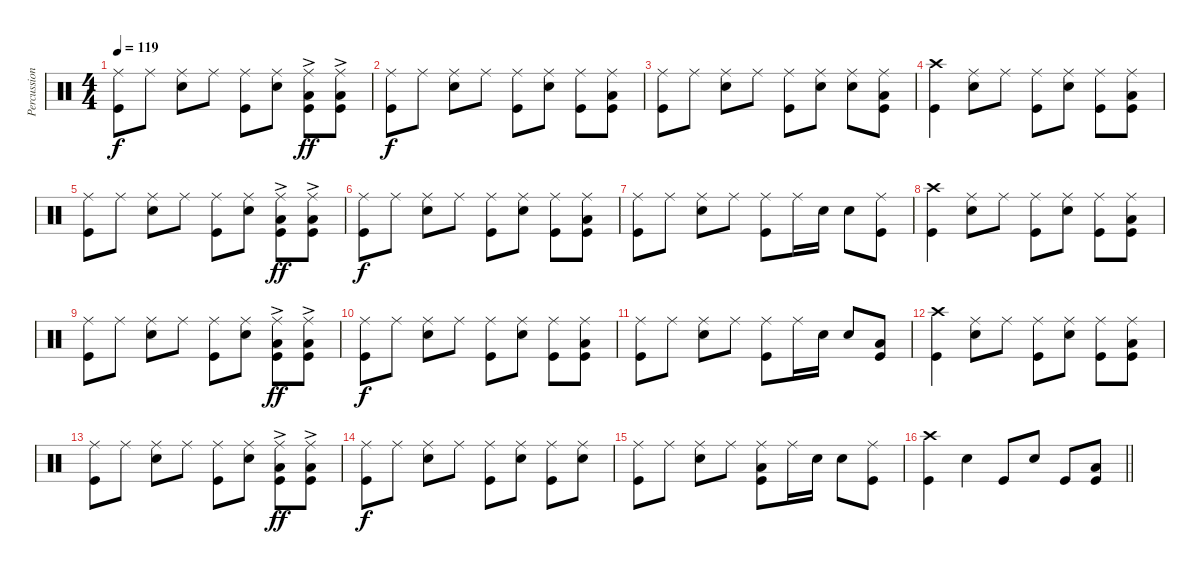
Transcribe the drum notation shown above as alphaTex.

\track ("Percussion" "Percussion") {instrument percussion}
\staff {score}
\articulation defaults
\ts (4 4)
\tempo 119
\clef neutral
\ks c
("Ride (middle)" "Kick (hit)").8{dy f} "Ride (middle)".8 ("Ride (middle)" "Snare (hit) 2").8 "Ride (middle)".8 ("Ride (middle)" "Kick (hit)").8 ("Ride (middle)" "Snare (hit) 2").8 ("Ride (middle)" "Low Tom (hit)"{ac} "Kick (hit)").8{dy ff} ("Ride (middle)" "Low Tom (hit)"{ac} "Kick (hit)").8 |
("Ride (middle)" "Kick (hit)").8{dy f} "Ride (middle)".8 ("Ride (middle)" "Snare (hit) 2").8 "Ride (middle)".8 ("Ride (middle)" "Kick (hit)").8 ("Ride (middle)" "Snare (hit) 2").8 ("Ride (middle)" "Kick (hit)").8 ("Ride (middle)" "Low Tom (hit)" "Kick (hit)").8 |
("Ride (middle)" "Kick (hit)").8 "Ride (middle)".8 ("Ride (middle)" "Snare (hit) 2").8 "Ride (middle)".8 ("Ride (middle)" "Kick (hit)").8 ("Ride (middle)" "Snare (hit) 2").8 ("Ride (middle)" "Snare (hit) 2").8 ("Ride (middle)" "Low Tom (hit)" "Kick (hit)").8 |
("Crash high (hit)" "Kick (hit)").4 ("Ride (middle)" "Snare (hit) 2").8 "Ride (middle)".8 ("Ride (middle)" "Kick (hit)").8 ("Ride (middle)" "Snare (hit) 2").8 ("Ride (middle)" "Kick (hit)").8 ("Ride (middle)" "Low Tom (hit)" "Kick (hit)").8 |
("Ride (middle)" "Kick (hit)").8 "Ride (middle)".8 ("Ride (middle)" "Snare (hit) 2").8 "Ride (middle)".8 ("Ride (middle)" "Kick (hit)").8 ("Ride (middle)" "Snare (hit) 2").8 ("Ride (middle)" "Low Tom (hit)"{ac} "Kick (hit)").8{dy ff} ("Ride (middle)" "Low Tom (hit)"{ac} "Kick (hit)").8 |
("Ride (middle)" "Kick (hit)").8{dy f} "Ride (middle)".8 ("Ride (middle)" "Snare (hit) 2").8 "Ride (middle)".8 ("Ride (middle)" "Kick (hit)").8 ("Ride (middle)" "Snare (hit) 2").8 ("Ride (middle)" "Kick (hit)").8 ("Ride (middle)" "Low Tom (hit)" "Kick (hit)").8 |
("Ride (middle)" "Kick (hit)").8 "Ride (middle)".8 ("Ride (middle)" "Snare (hit) 2").8 "Ride (middle)".8 ("Ride (middle)" "Kick (hit)").8 "Ride (middle)".16 "Snare (hit) 2".16 "Snare (hit) 2".8 ("Ride (middle)" "Kick (hit)").8 |
("Crash high (hit)" "Kick (hit)").4 ("Ride (middle)" "Snare (hit) 2").8 "Ride (middle)".8 ("Ride (middle)" "Kick (hit)").8 ("Ride (middle)" "Snare (hit) 2").8 ("Ride (middle)" "Kick (hit)").8 ("Ride (middle)" "Low Tom (hit)" "Kick (hit)").8 |
("Ride (middle)" "Kick (hit)").8 "Ride (middle)".8 ("Ride (middle)" "Snare (hit) 2").8 "Ride (middle)".8 ("Ride (middle)" "Kick (hit)").8 ("Ride (middle)" "Snare (hit) 2").8 ("Ride (middle)" "Low Tom (hit)"{ac} "Kick (hit)").8{dy ff} ("Ride (middle)" "Low Tom (hit)"{ac} "Kick (hit)").8 |
("Ride (middle)" "Kick (hit)").8{dy f} "Ride (middle)".8 ("Ride (middle)" "Snare (hit) 2").8 "Ride (middle)".8 ("Ride (middle)" "Kick (hit)").8 ("Ride (middle)" "Snare (hit) 2").8 ("Ride (middle)" "Kick (hit)").8 ("Ride (middle)" "Low Tom (hit)" "Kick (hit)").8 |
("Ride (middle)" "Kick (hit)").8 "Ride (middle)".8 ("Ride (middle)" "Snare (hit) 2").8 "Ride (middle)".8 ("Ride (middle)" "Kick (hit)").8 "Ride (middle)".16 "Snare (hit) 2".16 "Snare (hit) 2".8 ("Low Tom (hit)" "Kick (hit)").8 |
("Crash high (hit)" "Kick (hit)").4 ("Ride (middle)" "Snare (hit) 2").8 "Ride (middle)".8 ("Ride (middle)" "Kick (hit)").8 ("Ride (middle)" "Snare (hit) 2").8 ("Ride (middle)" "Kick (hit)").8 ("Ride (middle)" "Low Tom (hit)" "Kick (hit)").8 |
("Ride (middle)" "Kick (hit)").8 "Ride (middle)".8 ("Ride (middle)" "Snare (hit) 2").8 "Ride (middle)".8 ("Ride (middle)" "Kick (hit)").8 ("Ride (middle)" "Snare (hit) 2").8 ("Ride (middle)" "Low Tom (hit)"{ac} "Kick (hit)").8{dy ff} ("Ride (middle)" "Low Tom (hit)"{ac} "Kick (hit)").8 |
("Ride (middle)" "Kick (hit)").8{dy f} "Ride (middle)".8 ("Ride (middle)" "Snare (hit) 2").8 "Ride (middle)".8 ("Ride (middle)" "Kick (hit)").8 ("Ride (middle)" "Snare (hit) 2").8 ("Ride (middle)" "Kick (hit)").8 ("Ride (middle)" "Snare (hit) 2").8 |
("Ride (middle)" "Kick (hit)").8 "Ride (middle)".8 ("Ride (middle)" "Snare (hit) 2").8 "Ride (middle)".8 ("Ride (middle)" "Low Tom (hit)" "Kick (hit)").8 "Ride (middle)".16 "Snare (hit) 2".16 "Snare (hit) 2".8 ("Ride (middle)" "Kick (hit)").8 |
\barLineRight lightlight
("Crash high (hit)" "Kick (hit)").4 "Snare (hit) 2".4 "Kick (hit)".8 "Snare (hit) 2".8 "Kick (hit)".8 ("Low Tom (hit)" "Kick (hit)").8
